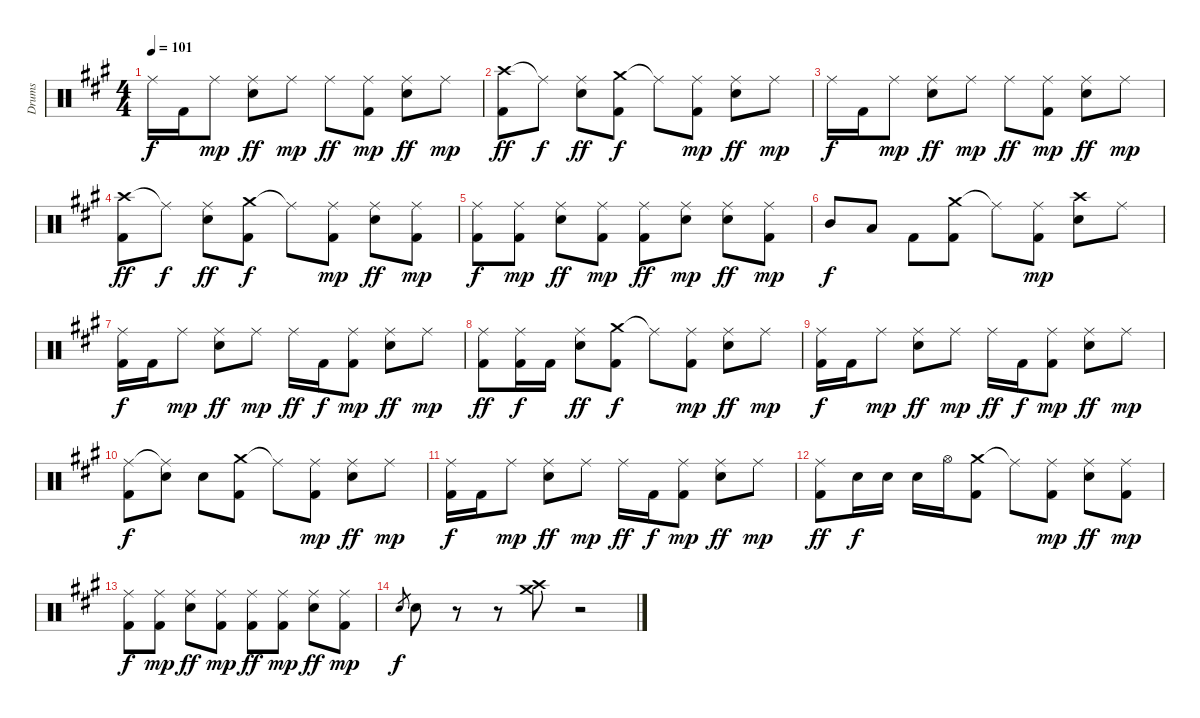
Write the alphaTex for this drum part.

\track ("Drums" "Drums") {instrument percussion}
\staff {score}
\articulation defaults
\ts (4 4)
\tempo 101
\clef neutral
\ks a "Ride (middle)".16{dy f} "Kick (hit) 2".16 "Ride (middle)".8{dy mp}
("Ride (middle)" "Electric Snare (hit)").8{dy ff} "Ride (middle)".8{dy mp} "Ride (middle)".8{dy ff} ("Ride (middle)" "Kick (hit) 2").8{dy mp} ("Ride (middle)" "Electric Snare (hit)").8{dy ff} "Ride (middle)".8{dy mp} |
("Crash high (hit)" "Kick (hit) 2").8{dy ff} "Ride (middle)"{t}.8{dy f} ("Ride (middle)" "Electric Snare (hit)").8{dy ff} ("Crash medium (hit)" "Kick (hit) 2").8{dy f} "Ride (middle)"{t}.8 ("Ride (middle)" "Kick (hit) 2").8{dy mp} ("Ride (middle)" "Electric Snare (hit)").8{dy ff} "Ride (middle)".8{dy mp} |
"Ride (middle)".16{dy f} "Kick (hit) 2".16 "Ride (middle)".8{dy mp} ("Ride (middle)" "Electric Snare (hit)").8{dy ff} "Ride (middle)".8{dy mp} "Ride (middle)".8{dy ff} ("Ride (middle)" "Kick (hit) 2").8{dy mp} ("Ride (middle)" "Electric Snare (hit)").8{dy ff} "Ride (middle)".8{dy mp} |
("Crash high (hit)" "Kick (hit) 2").8{dy ff} "Ride (middle)"{t}.8{dy f} ("Ride (middle)" "Electric Snare (hit)").8{dy ff} ("Crash medium (hit)" "Kick (hit) 2").8{dy f} "Ride (middle)"{t}.8 ("Ride (middle)" "Kick (hit) 2").8{dy mp} ("Ride (middle)" "Electric Snare (hit)").8{dy ff} ("Ride (middle)" "Kick (hit) 2").8{dy mp} |
("Ride (middle)" "Kick (hit) 2").8{dy f} ("Ride (middle)" "Kick (hit) 2").8{dy mp} ("Ride (middle)" "Electric Snare (hit)").8{dy ff} ("Ride (middle)" "Kick (hit) 2").8{dy mp} ("Ride (middle)" "Kick (hit) 2").8{dy ff} ("Ride (middle)" "Electric Snare (hit)").8{dy mp} ("Ride (middle)" "Electric Snare (hit)").8{dy ff} ("Ride (middle)" "Kick (hit) 2").8{dy mp} |
"Mid Tom (hit)".8{dy f} "Low Tom (hit)".8 "Kick (hit) 2".8 ("Crash medium (hit)" "Kick (hit) 2").8 "Ride (middle)"{t}.8 ("Ride (middle)" "Kick (hit) 2").8{dy mp} ("Crash high (hit)" "Electric Snare (hit)").8 "Ride (middle)".8 |
("Ride (middle)" "Kick (hit) 2").16{dy f} "Kick (hit) 2".16 "Ride (middle)".8{dy mp} ("Ride (middle)" "Electric Snare (hit)").8{dy ff} "Ride (middle)".8{dy mp} "Ride (middle)".16{dy ff} "Kick (hit) 2".16{dy f} ("Ride (middle)" "Kick (hit) 2").8{dy mp} ("Ride (middle)" "Electric Snare (hit)").8{dy ff} "Ride (middle)".8{dy mp} |
("Ride (middle)" "Kick (hit) 2").8{dy ff} ("Ride (middle)" "Kick (hit) 2").16{dy f} "Kick (hit) 2".16 ("Ride (middle)" "Electric Snare (hit)").8{dy ff} ("Crash medium (hit)" "Kick (hit) 2").8{dy f} "Ride (middle)"{t}.8 ("Ride (middle)" "Kick (hit) 2").8{dy mp} ("Ride (middle)" "Electric Snare (hit)").8{dy ff} "Ride (middle)".8{dy mp} |
("Ride (middle)" "Kick (hit) 2").16{dy f} "Kick (hit) 2".16 "Ride (middle)".8{dy mp} ("Ride (middle)" "Electric Snare (hit)").8{dy ff} "Ride (middle)".8{dy mp} "Ride (middle)".16{dy ff} "Kick (hit) 2".16{dy f} ("Ride (middle)" "Kick (hit) 2").8{dy mp} ("Ride (middle)" "Electric Snare (hit)").8{dy ff} "Ride (middle)".8{dy mp} |
("Ride (middle)" "Kick (hit) 2").8{dy f} ("Ride (middle)"{t} "Electric Snare (hit)").8 "Electric Snare (hit)".8 ("Crash medium (hit)" "Kick (hit) 2").8 "Ride (middle)"{t}.8 ("Ride (middle)" "Kick (hit) 2").8{dy mp} ("Ride (middle)" "Electric Snare (hit)").8{dy ff} "Ride (middle)".8{dy mp} |
("Ride (middle)" "Kick (hit) 2").16{dy f} "Kick (hit) 2".16 "Ride (middle)".8{dy mp} ("Ride (middle)" "Electric Snare (hit)").8{dy ff} "Ride (middle)".8{dy mp} "Ride (middle)".16{dy ff} "Kick (hit) 2".16{dy f} ("Ride (middle)" "Kick (hit) 2").8{dy mp} ("Ride (middle)" "Electric Snare (hit)").8{dy ff} "Ride (middle)".8{dy mp} |
("Ride (middle)" "Kick (hit) 2").8{dy ff} "Electric Snare (hit)".16{dy f} "Electric Snare (hit)".16 "Electric Snare (hit)".16 "Hi-Hat (open)".16 ("Crash medium (hit)" "Kick (hit) 2").8 "Ride (middle)"{t}.8 ("Ride (middle)" "Kick (hit) 2").8{dy mp} ("Ride (middle)" "Electric Snare (hit)").8{dy ff} ("Ride (middle)" "Kick (hit) 2").8{dy mp} |
("Ride (middle)" "Kick (hit) 2").8{dy f} ("Ride (middle)" "Kick (hit) 2").8{dy mp} ("Ride (middle)" "Electric Snare (hit)").8{dy ff} ("Ride (middle)" "Kick (hit) 2").8{dy mp} ("Ride (middle)" "Kick (hit) 2").8{dy ff} ("Ride (middle)" "Kick (hit) 2").8{dy mp} ("Ride (middle)" "Electric Snare (hit)").8{dy ff} ("Ride (middle)" "Kick (hit) 2").8{dy mp} |
"Electric Snare (hit)".8{gr dy f} "Electric Snare (hit)".8 r.8 r.8 ("Crash medium (hit)" "Crash high (hit)").8 r.2
